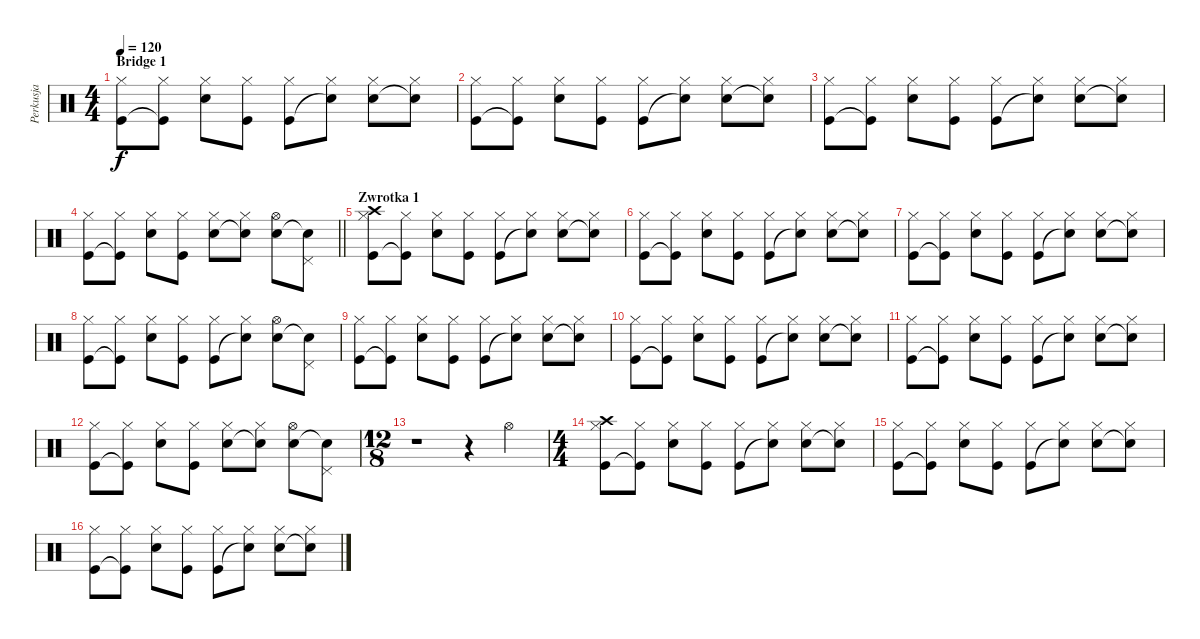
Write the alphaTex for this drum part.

\track ("Perkusja" "Perkusja") {instrument percussion}
\staff {score}
\articulation defaults
\ts (4 4)
\section ("" "Bridge 1")
\tempo 120
\clef neutral
\ks c
("Kick (hit)" "Hi-Hat (closed)").8{dy f} ("Kick (hit)"{t} "Hi-Hat (closed)").8 ("Snare (hit) 2" "Hi-Hat (closed)").8 ("Kick (hit)" "Hi-Hat (closed)").8 ("Kick (hit)" "Hi-Hat (closed)").8 ("Snare (hit)"{t} "Hi-Hat (closed)").8 ("Snare (hit) 2" "Hi-Hat (closed)").8 ("Snare (hit)"{t} "Hi-Hat (closed)").8 |
("Kick (hit)" "Hi-Hat (closed)").8 ("Kick (hit)"{t} "Hi-Hat (closed)").8 ("Snare (hit) 2" "Hi-Hat (closed)").8 ("Kick (hit)" "Hi-Hat (closed)").8 ("Kick (hit)" "Hi-Hat (closed)").8 ("Snare (hit)"{t} "Hi-Hat (closed)").8 ("Snare (hit) 2" "Hi-Hat (closed)").8 ("Snare (hit)"{t} "Hi-Hat (closed)").8 |
("Kick (hit)" "Hi-Hat (closed)").8 ("Kick (hit)"{t} "Hi-Hat (closed)").8 ("Snare (hit) 2" "Hi-Hat (closed)").8 ("Kick (hit)" "Hi-Hat (closed)").8 ("Kick (hit)" "Hi-Hat (closed)").8 ("Snare (hit)"{t} "Hi-Hat (closed)").8 ("Snare (hit) 2" "Hi-Hat (closed)").8 ("Snare (hit)"{t} "Hi-Hat (closed)").8 |
\barLineRight lightlight
("Kick (hit)" "Hi-Hat (closed)").8 ("Kick (hit)"{t} "Hi-Hat (closed)").8 ("Snare (hit) 2" "Hi-Hat (closed)").8 ("Kick (hit)" "Hi-Hat (closed)").8 ("Snare (hit) 2" "Hi-Hat (closed)").8 ("Snare (hit)"{t} "Hi-Hat (closed)").8 ("Snare (hit) 2" "Hi-Hat (open)").8 ("Snare (hit)"{t} "Pedal Hi-Hat (hit)").8 |
\section ("" "Zwrotka 1")
("Kick (hit)" "Hi-Hat (closed)" "Crash high (hit)").8 ("Kick (hit)"{t} "Hi-Hat (closed)").8 ("Snare (hit) 2" "Hi-Hat (closed)").8 ("Kick (hit)" "Hi-Hat (closed)").8 ("Kick (hit)" "Hi-Hat (closed)").8 ("Snare (hit)"{t} "Hi-Hat (closed)").8 ("Snare (hit) 2" "Hi-Hat (closed)").8 ("Snare (hit)"{t} "Hi-Hat (closed)").8 |
("Kick (hit)" "Hi-Hat (closed)").8 ("Kick (hit)"{t} "Hi-Hat (closed)").8 ("Snare (hit) 2" "Hi-Hat (closed)").8 ("Kick (hit)" "Hi-Hat (closed)").8 ("Kick (hit)" "Hi-Hat (closed)").8 ("Snare (hit)"{t} "Hi-Hat (closed)").8 ("Snare (hit) 2" "Hi-Hat (closed)").8 ("Snare (hit)"{t} "Hi-Hat (closed)").8 |
("Kick (hit)" "Hi-Hat (closed)").8 ("Kick (hit)"{t} "Hi-Hat (closed)").8 ("Snare (hit) 2" "Hi-Hat (closed)").8 ("Kick (hit)" "Hi-Hat (closed)").8 ("Kick (hit)" "Hi-Hat (closed)").8 ("Snare (hit)"{t} "Hi-Hat (closed)").8 ("Snare (hit) 2" "Hi-Hat (closed)").8 ("Snare (hit)"{t} "Hi-Hat (closed)").8 |
("Kick (hit)" "Hi-Hat (closed)").8 ("Kick (hit)"{t} "Hi-Hat (closed)").8 ("Snare (hit) 2" "Hi-Hat (closed)").8 ("Kick (hit)" "Hi-Hat (closed)").8 ("Kick (hit)" "Hi-Hat (closed)").8 ("Snare (hit)"{t} "Hi-Hat (closed)").8 ("Snare (hit) 2" "Hi-Hat (open)").8 ("Snare (hit)"{t} "Pedal Hi-Hat (hit)").8 |
("Kick (hit)" "Hi-Hat (closed)").8 ("Kick (hit)"{t} "Hi-Hat (closed)").8 ("Snare (hit) 2" "Hi-Hat (closed)").8 ("Kick (hit)" "Hi-Hat (closed)").8 ("Kick (hit)" "Hi-Hat (closed)").8 ("Snare (hit)"{t} "Hi-Hat (closed)").8 ("Snare (hit) 2" "Hi-Hat (closed)").8 ("Snare (hit)"{t} "Hi-Hat (closed)").8 |
("Kick (hit)" "Hi-Hat (closed)").8 ("Kick (hit)"{t} "Hi-Hat (closed)").8 ("Snare (hit) 2" "Hi-Hat (closed)").8 ("Kick (hit)" "Hi-Hat (closed)").8 ("Kick (hit)" "Hi-Hat (closed)").8 ("Snare (hit)"{t} "Hi-Hat (closed)").8 ("Snare (hit) 2" "Hi-Hat (closed)").8 ("Snare (hit)"{t} "Hi-Hat (closed)").8 |
("Kick (hit)" "Hi-Hat (closed)").8 ("Kick (hit)"{t} "Hi-Hat (closed)").8 ("Snare (hit) 2" "Hi-Hat (closed)").8 ("Kick (hit)" "Hi-Hat (closed)").8 ("Kick (hit)" "Hi-Hat (closed)").8 ("Snare (hit)"{t} "Hi-Hat (closed)").8 ("Snare (hit) 2" "Hi-Hat (closed)").8 ("Snare (hit)"{t} "Hi-Hat (closed)").8 |
("Kick (hit)" "Hi-Hat (closed)").8 ("Kick (hit)"{t} "Hi-Hat (closed)").8 ("Snare (hit) 2" "Hi-Hat (closed)").8 ("Kick (hit)" "Hi-Hat (closed)").8 ("Snare (hit) 2" "Hi-Hat (closed)").8 ("Snare (hit)"{t} "Hi-Hat (closed)").8 ("Snare (hit) 2" "Hi-Hat (open)").8 ("Snare (hit)"{t} "Pedal Hi-Hat (hit)").8 |
\ts (12 8)
r.1 r.4 "Hi-Hat (open)".4 |
\ts (4 4)
("Kick (hit)" "Hi-Hat (closed)" "Crash high (hit)").8 ("Kick (hit)"{t} "Hi-Hat (closed)").8 ("Snare (hit) 2" "Hi-Hat (closed)").8 ("Kick (hit)" "Hi-Hat (closed)").8 ("Kick (hit)" "Hi-Hat (closed)").8 ("Snare (hit)"{t} "Hi-Hat (closed)").8 ("Snare (hit) 2" "Hi-Hat (closed)").8 ("Snare (hit)"{t} "Hi-Hat (closed)").8 |
("Kick (hit)" "Hi-Hat (closed)").8 ("Kick (hit)"{t} "Hi-Hat (closed)").8 ("Snare (hit) 2" "Hi-Hat (closed)").8 ("Kick (hit)" "Hi-Hat (closed)").8 ("Kick (hit)" "Hi-Hat (closed)").8 ("Snare (hit)"{t} "Hi-Hat (closed)").8 ("Snare (hit) 2" "Hi-Hat (closed)").8 ("Snare (hit)"{t} "Hi-Hat (closed)").8 |
("Kick (hit)" "Hi-Hat (closed)").8 ("Kick (hit)"{t} "Hi-Hat (closed)").8 ("Snare (hit) 2" "Hi-Hat (closed)").8 ("Kick (hit)" "Hi-Hat (closed)").8 ("Kick (hit)" "Hi-Hat (closed)").8 ("Snare (hit)"{t} "Hi-Hat (closed)").8 ("Snare (hit) 2" "Hi-Hat (closed)").8 ("Snare (hit)"{t} "Hi-Hat (closed)").8
